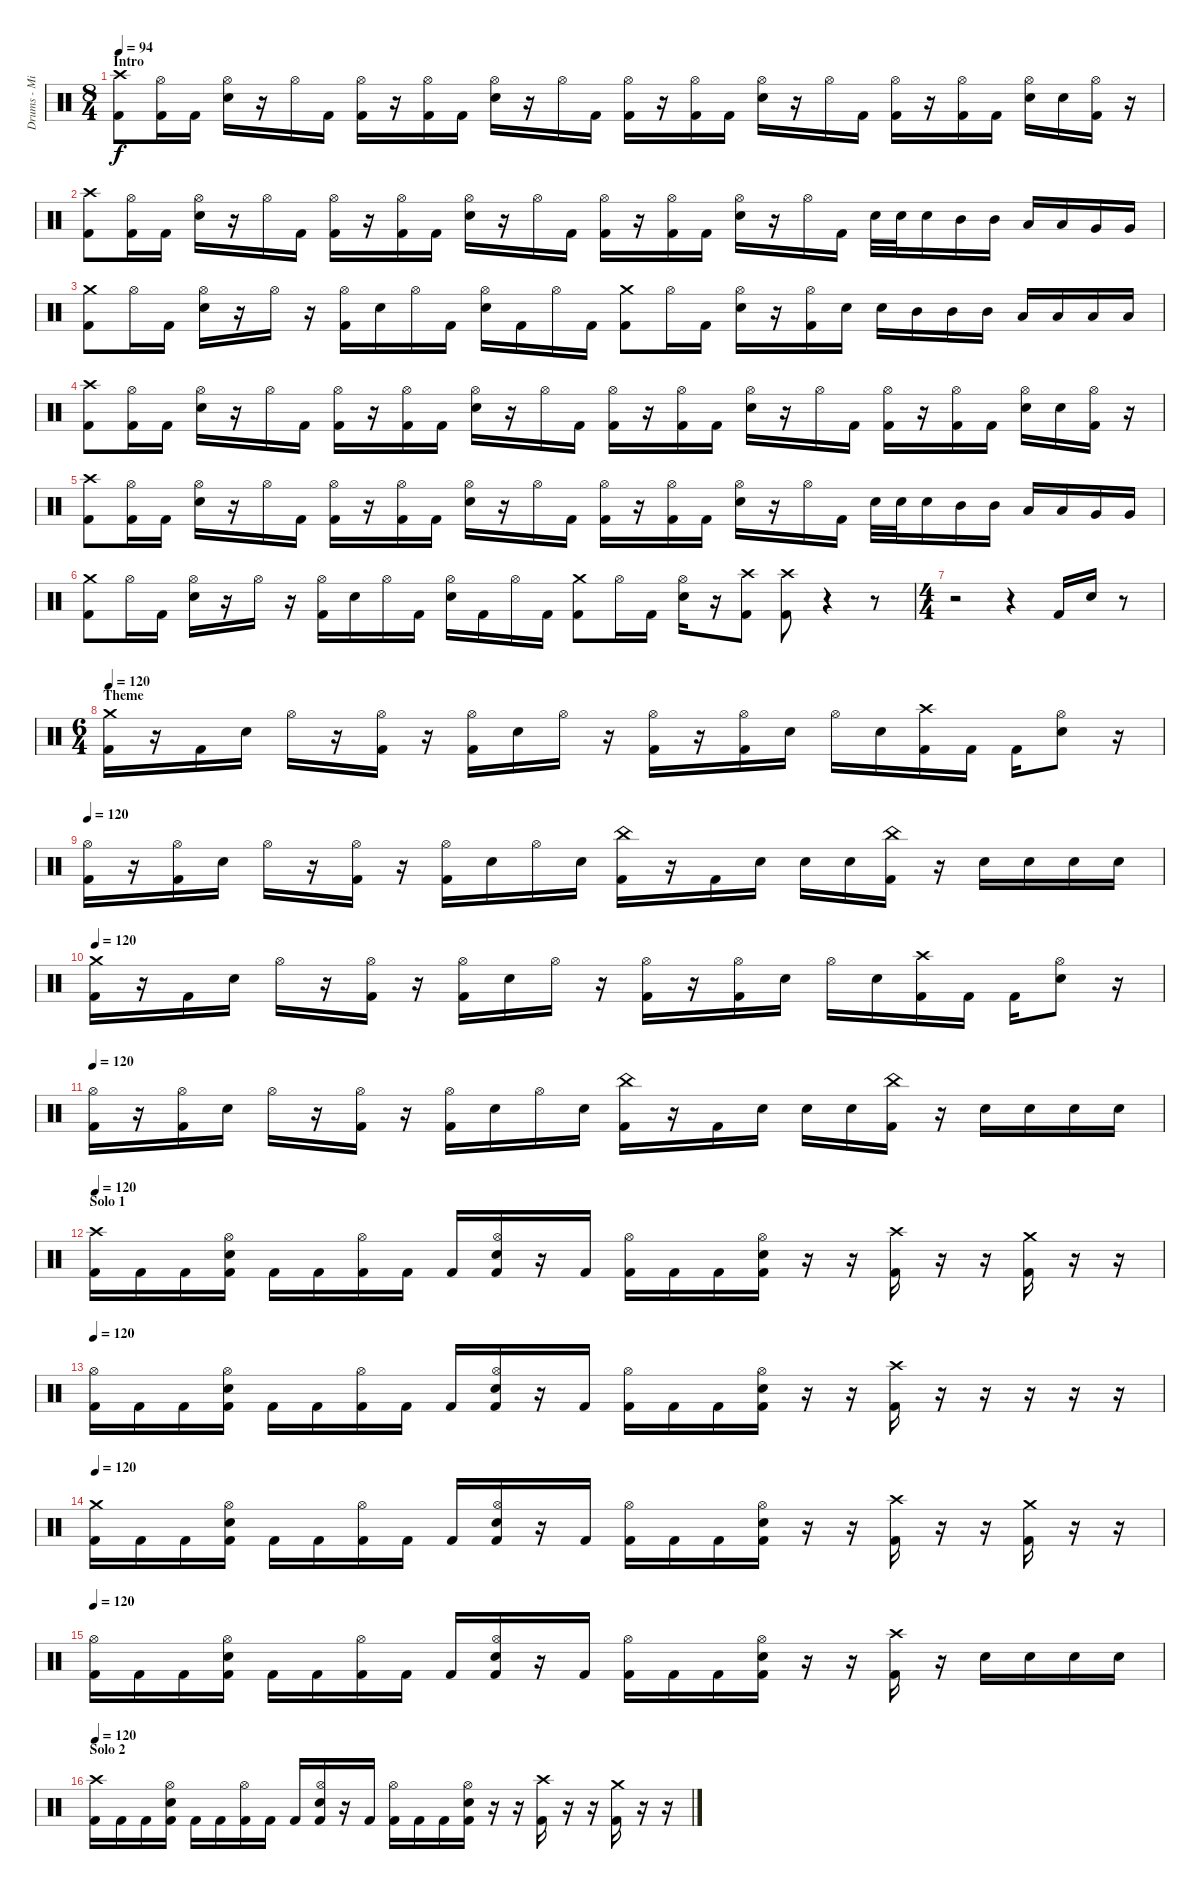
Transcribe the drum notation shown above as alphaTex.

\track ("Drums - Mikkey Dee" "Drums - Mi") {instrument percussion}
\staff {score}
\articulation defaults
\ts (8 4)
\section ("" "Intro")
\tempo 94
\clef neutral
\ks c
("Crash high (hit)" "Kick (hit) 2").8{dy f} ("Hi-Hat (open)" "Kick (hit) 2").16 "Kick (hit) 2".16 ("Hi-Hat (open)" "Electric Snare (hit)").16 r.16 "Hi-Hat (open)".16 "Kick (hit) 2".16 ("Hi-Hat (open)" "Kick (hit) 2").16 r.16 ("Hi-Hat (open)" "Kick (hit) 2").16 "Kick (hit) 2".16 ("Hi-Hat (open)" "Electric Snare (hit)").16 r.16 "Hi-Hat (open)".16 "Kick (hit) 2".16 ("Hi-Hat (open)" "Kick (hit) 2").16 r.16 ("Hi-Hat (open)" "Kick (hit) 2").16 "Kick (hit) 2".16 ("Hi-Hat (open)" "Electric Snare (hit)").16 r.16 "Hi-Hat (open)".16 "Kick (hit) 2".16 ("Hi-Hat (open)" "Kick (hit) 2").16 r.16 ("Hi-Hat (open)" "Kick (hit) 2").16 "Kick (hit) 2".16 ("Hi-Hat (open)" "Electric Snare (hit)").16 "Electric Snare (hit)".16 ("Hi-Hat (open)" "Kick (hit) 2").16 r.16 |
("Crash high (hit)" "Kick (hit) 2").8 ("Hi-Hat (open)" "Kick (hit) 2").16 "Kick (hit) 2".16 ("Hi-Hat (open)" "Electric Snare (hit)").16 r.16 "Hi-Hat (open)".16 "Kick (hit) 2".16 ("Hi-Hat (open)" "Kick (hit) 2").16 r.16 ("Hi-Hat (open)" "Kick (hit) 2").16 "Kick (hit) 2".16 ("Hi-Hat (open)" "Electric Snare (hit)").16 r.16 "Hi-Hat (open)".16 "Kick (hit) 2".16 ("Hi-Hat (open)" "Kick (hit) 2").16 r.16 ("Hi-Hat (open)" "Kick (hit) 2").16 "Kick (hit) 2".16 ("Hi-Hat (open)" "Electric Snare (hit)").16 r.16 "Hi-Hat (open)".16 "Kick (hit) 2".16 "Electric Snare (hit)".32 "Electric Snare (hit)".32 "Electric Snare (hit)".16 "Mid Tom (hit)".16 "Mid Tom (hit)".16 "Low Tom (hit)".16 "Low Tom (hit)".16 "Very Low Tom (hit)".16 "Very Low Tom (hit)".16 |
("Crash medium (hit)" "Kick (hit) 2").8 "Hi-Hat (open)".16 "Kick (hit) 2".16 ("Hi-Hat (open)" "Electric Snare (hit)").16 r.16 "Hi-Hat (open)".16 r.16 ("Hi-Hat (open)" "Kick (hit) 2").16 "Electric Snare (hit)".16 "Hi-Hat (open)".16 "Kick (hit) 2".16 ("Hi-Hat (open)" "Electric Snare (hit)").16 "Kick (hit) 2".16 "Hi-Hat (open)".16 "Kick (hit) 2".16 ("Crash medium (hit)" "Kick (hit) 2").8 "Hi-Hat (open)".16 "Kick (hit) 2".16 ("Hi-Hat (open)" "Electric Snare (hit)").16 r.16 ("Hi-Hat (open)" "Kick (hit) 2").16 "Electric Snare (hit)".16 "Electric Snare (hit)".16 "Mid Tom (hit)".16 "Mid Tom (hit)".16 "Mid Tom (hit)".16 "Low Tom (hit)".16 "Low Tom (hit)".16 "Low Tom (hit)".16 "Low Tom (hit)".16 |
("Crash high (hit)" "Kick (hit) 2").8 ("Hi-Hat (open)" "Kick (hit) 2").16 "Kick (hit) 2".16 ("Hi-Hat (open)" "Electric Snare (hit)").16 r.16 "Hi-Hat (open)".16 "Kick (hit) 2".16 ("Hi-Hat (open)" "Kick (hit) 2").16 r.16 ("Hi-Hat (open)" "Kick (hit) 2").16 "Kick (hit) 2".16 ("Hi-Hat (open)" "Electric Snare (hit)").16 r.16 "Hi-Hat (open)".16 "Kick (hit) 2".16 ("Hi-Hat (open)" "Kick (hit) 2").16 r.16 ("Hi-Hat (open)" "Kick (hit) 2").16 "Kick (hit) 2".16 ("Hi-Hat (open)" "Electric Snare (hit)").16 r.16 "Hi-Hat (open)".16 "Kick (hit) 2".16 ("Hi-Hat (open)" "Kick (hit) 2").16 r.16 ("Hi-Hat (open)" "Kick (hit) 2").16 "Kick (hit) 2".16 ("Hi-Hat (open)" "Electric Snare (hit)").16 "Electric Snare (hit)".16 ("Hi-Hat (open)" "Kick (hit) 2").16 r.16 |
("Crash high (hit)" "Kick (hit) 2").8 ("Hi-Hat (open)" "Kick (hit) 2").16 "Kick (hit) 2".16 ("Hi-Hat (open)" "Electric Snare (hit)").16 r.16 "Hi-Hat (open)".16 "Kick (hit) 2".16 ("Hi-Hat (open)" "Kick (hit) 2").16 r.16 ("Hi-Hat (open)" "Kick (hit) 2").16 "Kick (hit) 2".16 ("Hi-Hat (open)" "Electric Snare (hit)").16 r.16 "Hi-Hat (open)".16 "Kick (hit) 2".16 ("Hi-Hat (open)" "Kick (hit) 2").16 r.16 ("Hi-Hat (open)" "Kick (hit) 2").16 "Kick (hit) 2".16 ("Hi-Hat (open)" "Electric Snare (hit)").16 r.16 "Hi-Hat (open)".16 "Kick (hit) 2".16 "Electric Snare (hit)".32 "Electric Snare (hit)".32 "Electric Snare (hit)".16 "Mid Tom (hit)".16 "Mid Tom (hit)".16 "Low Tom (hit)".16 "Low Tom (hit)".16 "Very Low Tom (hit)".16 "Very Low Tom (hit)".16 |
("Crash medium (hit)" "Kick (hit) 2").8 "Hi-Hat (open)".16 "Kick (hit) 2".16 ("Hi-Hat (open)" "Electric Snare (hit)").16 r.16 "Hi-Hat (open)".16 r.16 ("Hi-Hat (open)" "Kick (hit) 2").16 "Electric Snare (hit)".16 "Hi-Hat (open)".16 "Kick (hit) 2".16 ("Hi-Hat (open)" "Electric Snare (hit)").16 "Kick (hit) 2".16 "Hi-Hat (open)".16 "Kick (hit) 2".16 ("Crash medium (hit)" "Kick (hit) 2").8 "Hi-Hat (open)".16 "Kick (hit) 2".16 ("Hi-Hat (open)" "Electric Snare (hit)").16 r.16 ("Crash high (hit)" "Kick (hit) 2").8 ("Crash high (hit)" "Kick (hit) 2").8 r.4 r.8 |
\ts (4 4)
r.2 r.4 "Kick (hit) 2".16 "Electric Snare (hit)".16 r.8 |
\ts (6 4)
\section ("" "Theme")
\tempo 120
("Crash medium (hit)" "Kick (hit) 2").16 r.16 "Kick (hit) 2".16 "Electric Snare (hit)".16 "Hi-Hat (open)".16 r.16 ("Hi-Hat (open)" "Kick (hit) 2").16 r.16 ("Hi-Hat (open)" "Kick (hit) 2").16 "Electric Snare (hit)".16 "Hi-Hat (open)".16 r.16 ("Hi-Hat (open)" "Kick (hit) 2").16 r.16 ("Hi-Hat (open)" "Kick (hit) 2").16 "Electric Snare (hit)".16 "Hi-Hat (open)".16 "Electric Snare (hit)".16 ("Crash high (hit)" "Kick (hit) 2").16 "Kick (hit) 2".16 "Kick (hit) 2".16 ("Hi-Hat (open)" "Electric Snare (hit)").8 r.16 |
\tempo 120
("Hi-Hat (open)" "Kick (hit) 2").16 r.16 ("Hi-Hat (open)" "Kick (hit) 2").16 "Electric Snare (hit)".16 "Hi-Hat (open)".16 r.16 ("Hi-Hat (open)" "Kick (hit) 2").16 r.16 ("Hi-Hat (open)" "Kick (hit) 2").16 "Electric Snare (hit)".16 "Hi-Hat (open)".16 "Electric Snare (hit)".16 ("China (hit)" "Kick (hit) 2").16 r.16 "Kick (hit) 2".16 "Electric Snare (hit)".16 "Electric Snare (hit)".16 "Electric Snare (hit)".16 ("China (hit)" "Kick (hit) 2").16 r.16 "Electric Snare (hit)".16 "Electric Snare (hit)".16 "Electric Snare (hit)".16 "Electric Snare (hit)".16 |
\tempo 120
("Crash medium (hit)" "Kick (hit) 2").16 r.16 "Kick (hit) 2".16 "Electric Snare (hit)".16 "Hi-Hat (open)".16 r.16 ("Hi-Hat (open)" "Kick (hit) 2").16 r.16 ("Hi-Hat (open)" "Kick (hit) 2").16 "Electric Snare (hit)".16 "Hi-Hat (open)".16 r.16 ("Hi-Hat (open)" "Kick (hit) 2").16 r.16 ("Hi-Hat (open)" "Kick (hit) 2").16 "Electric Snare (hit)".16 "Hi-Hat (open)".16 "Electric Snare (hit)".16 ("Crash high (hit)" "Kick (hit) 2").16 "Kick (hit) 2".16 "Kick (hit) 2".16 ("Hi-Hat (open)" "Electric Snare (hit)").8 r.16 |
\tempo 120
("Hi-Hat (open)" "Kick (hit) 2").16 r.16 ("Hi-Hat (open)" "Kick (hit) 2").16 "Electric Snare (hit)".16 "Hi-Hat (open)".16 r.16 ("Hi-Hat (open)" "Kick (hit) 2").16 r.16 ("Hi-Hat (open)" "Kick (hit) 2").16 "Electric Snare (hit)".16 "Hi-Hat (open)".16 "Electric Snare (hit)".16 ("China (hit)" "Kick (hit) 2").16 r.16 "Kick (hit) 2".16 "Electric Snare (hit)".16 "Electric Snare (hit)".16 "Electric Snare (hit)".16 ("China (hit)" "Kick (hit) 2").16 r.16 "Electric Snare (hit)".16 "Electric Snare (hit)".16 "Electric Snare (hit)".16 "Electric Snare (hit)".16 |
\section ("" "Solo 1")
\tempo 120
("Crash high (hit)" "Kick (hit) 2").16 "Kick (hit) 2".16 "Kick (hit) 2".16 ("Hi-Hat (open)" "Electric Snare (hit)" "Kick (hit) 2").16 "Kick (hit) 2".16 "Kick (hit) 2".16 ("Hi-Hat (open)" "Kick (hit) 2").16 "Kick (hit) 2".16 "Kick (hit) 2".16 ("Hi-Hat (open)" "Electric Snare (hit)" "Kick (hit) 2").16 r.16 "Kick (hit) 2".16 ("Hi-Hat (open)" "Kick (hit) 2").16 "Kick (hit) 2".16 "Kick (hit) 2".16 ("Hi-Hat (open)" "Electric Snare (hit)" "Kick (hit) 2").16 r.16 r.16 ("Crash high (hit)" "Kick (hit) 2").16 r.16 r.16 ("Crash medium (hit)" "Kick (hit) 2").16 r.16 r.16 |
\tempo 120
("Hi-Hat (open)" "Kick (hit) 2").16 "Kick (hit) 2".16 "Kick (hit) 2".16 ("Hi-Hat (open)" "Electric Snare (hit)" "Kick (hit) 2").16 "Kick (hit) 2".16 "Kick (hit) 2".16 ("Hi-Hat (open)" "Kick (hit) 2").16 "Kick (hit) 2".16 "Kick (hit) 2".16 ("Hi-Hat (open)" "Electric Snare (hit)" "Kick (hit) 2").16 r.16 "Kick (hit) 2".16 ("Hi-Hat (open)" "Kick (hit) 2").16 "Kick (hit) 2".16 "Kick (hit) 2".16 ("Hi-Hat (open)" "Electric Snare (hit)" "Kick (hit) 2").16 r.16 r.16 ("Crash high (hit)" "Kick (hit) 2").16 r.16 r.16 r.16 r.16 r.16 |
\tempo 120
("Crash medium (hit)" "Kick (hit) 2").16 "Kick (hit) 2".16 "Kick (hit) 2".16 ("Hi-Hat (open)" "Electric Snare (hit)" "Kick (hit) 2").16 "Kick (hit) 2".16 "Kick (hit) 2".16 ("Hi-Hat (open)" "Kick (hit) 2").16 "Kick (hit) 2".16 "Kick (hit) 2".16 ("Hi-Hat (open)" "Electric Snare (hit)" "Kick (hit) 2").16 r.16 "Kick (hit) 2".16 ("Hi-Hat (open)" "Kick (hit) 2").16 "Kick (hit) 2".16 "Kick (hit) 2".16 ("Hi-Hat (open)" "Electric Snare (hit)" "Kick (hit) 2").16 r.16 r.16 ("Crash high (hit)" "Kick (hit) 2").16 r.16 r.16 ("Crash medium (hit)" "Kick (hit) 2").16 r.16 r.16 |
\tempo 120
("Hi-Hat (open)" "Kick (hit) 2").16 "Kick (hit) 2".16 "Kick (hit) 2".16 ("Hi-Hat (open)" "Electric Snare (hit)" "Kick (hit) 2").16 "Kick (hit) 2".16 "Kick (hit) 2".16 ("Hi-Hat (open)" "Kick (hit) 2").16 "Kick (hit) 2".16 "Kick (hit) 2".16 ("Hi-Hat (open)" "Electric Snare (hit)" "Kick (hit) 2").16 r.16 "Kick (hit) 2".16 ("Hi-Hat (open)" "Kick (hit) 2").16 "Kick (hit) 2".16 "Kick (hit) 2".16 ("Hi-Hat (open)" "Electric Snare (hit)" "Kick (hit) 2").16 r.16 r.16 ("Crash high (hit)" "Kick (hit) 2").16 r.16 "Electric Snare (hit)".16 "Electric Snare (hit)".16 "Electric Snare (hit)".16 "Electric Snare (hit)".16 |
\section ("" "Solo 2")
\tempo 120
("Crash high (hit)" "Kick (hit) 2").16 "Kick (hit) 2".16 "Kick (hit) 2".16 ("Hi-Hat (open)" "Electric Snare (hit)" "Kick (hit) 2").16 "Kick (hit) 2".16 "Kick (hit) 2".16 ("Hi-Hat (open)" "Kick (hit) 2").16 "Kick (hit) 2".16 "Kick (hit) 2".16 ("Hi-Hat (open)" "Electric Snare (hit)" "Kick (hit) 2").16 r.16 "Kick (hit) 2".16 ("Hi-Hat (open)" "Kick (hit) 2").16 "Kick (hit) 2".16 "Kick (hit) 2".16 ("Hi-Hat (open)" "Electric Snare (hit)" "Kick (hit) 2").16 r.16 r.16 ("Crash high (hit)" "Kick (hit) 2").16 r.16 r.16 ("Crash medium (hit)" "Kick (hit) 2").16 r.16 r.16
